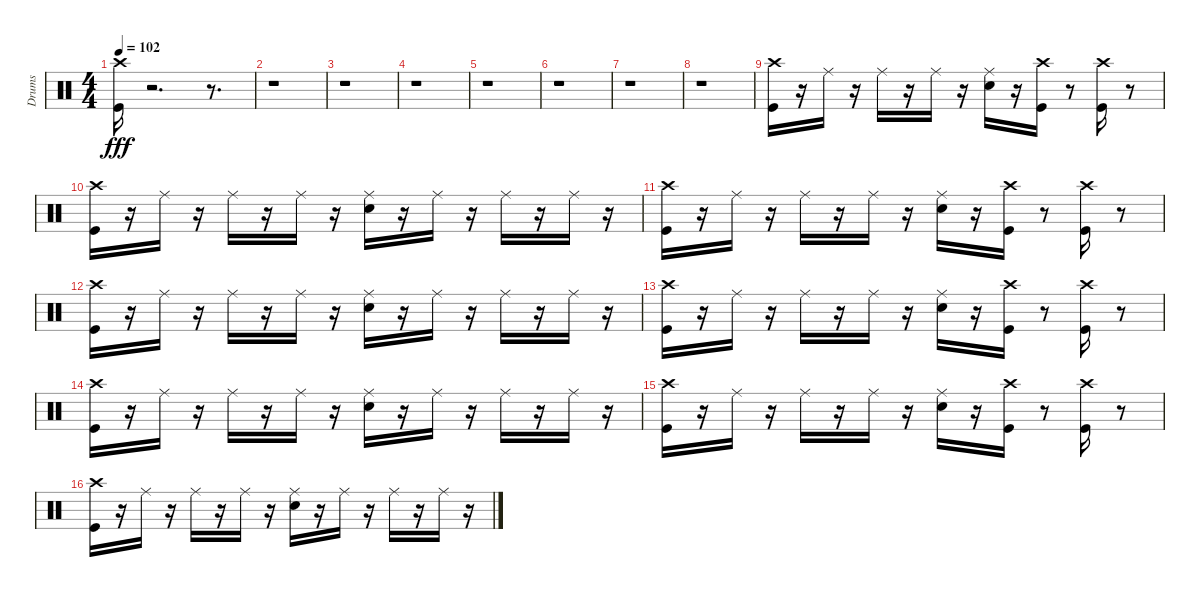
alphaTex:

\track ("Drums" "Drums") {instrument percussion}
\staff {score}
\articulation defaults
\ts (4 4)
\tempo 102
\clef neutral
\ks c
("Crash high (hit)" "Kick (hit)").16{dy fff} r.2{d} r.8{d} |
r.1 |
r.1 |
r.1 |
r.1 |
r.1 |
r.1 |
r.1 |
("Crash high (hit)" "Kick (hit)").16 r.16 "Ride (middle)".16 r.16 "Ride (middle)".16 r.16 "Ride (middle)".16 r.16 ("Snare (hit) 2" "Ride (middle)").16 r.16 ("Crash high (hit)" "Kick (hit)").16 r.8 ("Crash high (hit)" "Kick (hit)").16 r.8 |
("Kick (hit)" "Crash high (hit)").16 r.16 "Ride (middle)".16 r.16 "Ride (middle)".16 r.16 "Ride (middle)".16 r.16 ("Ride (middle)" "Snare (hit) 2").16 r.16 "Ride (middle)".16 r.16 "Ride (middle)".16 r.16 "Ride (middle)".16 r.16 |
("Kick (hit)" "Crash high (hit)").16 r.16 "Ride (middle)".16 r.16 "Ride (middle)".16 r.16 "Ride (middle)".16 r.16 ("Ride (middle)" "Snare (hit) 2").16 r.16 ("Kick (hit)" "Crash high (hit)").16 r.8 ("Kick (hit)" "Crash high (hit)").16 r.8 |
("Crash high (hit)" "Kick (hit)").16 r.16 "Ride (middle)".16 r.16 "Ride (middle)".16 r.16 "Ride (middle)".16 r.16 ("Snare (hit) 2" "Ride (middle)").16 r.16 "Ride (middle)".16 r.16 "Ride (middle)".16 r.16 "Ride (middle)".16 r.16 |
("Kick (hit)" "Crash high (hit)").16 r.16 "Ride (middle)".16 r.16 "Ride (middle)".16 r.16 "Ride (middle)".16 r.16 ("Ride (middle)" "Snare (hit) 2").16 r.16 ("Kick (hit)" "Crash high (hit)").16 r.8 ("Kick (hit)" "Crash high (hit)").16 r.8 |
("Crash high (hit)" "Kick (hit)").16 r.16 "Ride (middle)".16 r.16 "Ride (middle)".16 r.16 "Ride (middle)".16 r.16 ("Snare (hit) 2" "Ride (middle)").16 r.16 "Ride (middle)".16 r.16 "Ride (middle)".16 r.16 "Ride (middle)".16 r.16 |
("Crash high (hit)" "Kick (hit)").16 r.16 "Ride (middle)".16 r.16 "Ride (middle)".16 r.16 "Ride (middle)".16 r.16 ("Snare (hit) 2" "Ride (middle)").16 r.16 ("Crash high (hit)" "Kick (hit)").16 r.8 ("Crash high (hit)" "Kick (hit)").16 r.8 |
("Kick (hit)" "Crash high (hit)").16 r.16 "Ride (middle)".16 r.16 "Ride (middle)".16 r.16 "Ride (middle)".16 r.16 ("Ride (middle)" "Snare (hit) 2").16 r.16 "Ride (middle)".16 r.16 "Ride (middle)".16 r.16 "Ride (middle)".16 r.16
